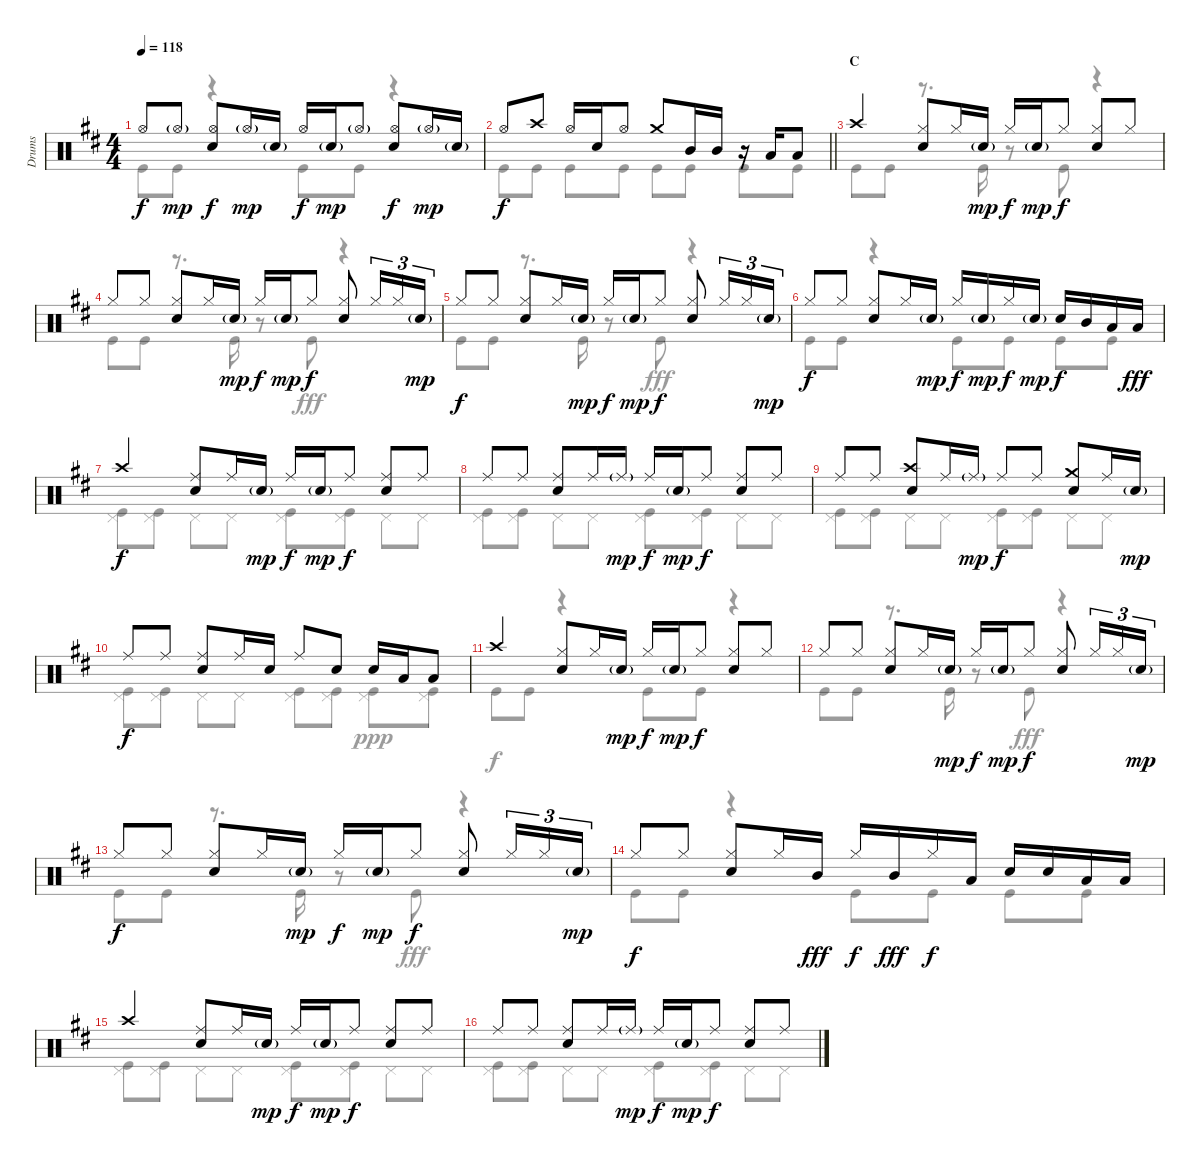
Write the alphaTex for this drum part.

\track ("Drums" "Drums") {instrument percussion}
\staff {score}
\articulation defaults
\voice
\ts (4 4)
\tempo 118
\clef neutral
\ks d "Hi-Hat (open)".8{dy f} "Hi-Hat (open)"{g}.8{dy mp}
("Hi-Hat (open)" "Snare (hit) 2").8{dy f} "Hi-Hat (open)"{g}.16{dy mp} "Snare (hit) 2"{g}.16 "Hi-Hat (open)".16{dy f} "Snare (hit) 2"{g}.16{dy mp} "Hi-Hat (open)"{g}.8 ("Hi-Hat (open)" "Snare (hit) 2").8{dy f} "Hi-Hat (open)"{g}.16{dy mp} "Snare (hit) 2"{g}.16 |
\barLineRight lightlight "Hi-Hat (open)".8{dy f} "Crash high (hit)".8 "Hi-Hat (open)".16 "Snare (hit) 2".16 "Hi-Hat (open)".8 "Crash medium (hit)".8 "Mid Tom (hit)".16 "Mid Tom (hit)".16
r.16 "Low Tom (hit)".16 "Low Tom (hit)".8 |
\section ("" "C")
"Crash high (hit)".4 ("Hi-Hat (closed)" "Snare (hit) 2").8 "Hi-Hat (closed)".16 "Snare (hit) 2"{g}.16{dy mp} "Hi-Hat (closed)".16{dy f} "Snare (hit) 2"{g}.16{dy mp} "Hi-Hat (closed)".8{dy f} ("Hi-Hat (closed)" "Snare (hit) 2").8 "Hi-Hat (closed)".8 |
"Hi-Hat (closed)".8 "Hi-Hat (closed)".8 ("Hi-Hat (closed)" "Snare (hit) 2").8 "Hi-Hat (closed)".16 "Snare (hit) 2"{g}.16{dy mp} "Hi-Hat (closed)".16{dy f} "Snare (hit) 2"{g}.16{dy mp} "Hi-Hat (closed)".8{dy f} ("Hi-Hat (closed)" "Snare (hit) 2").8 "Hi-Hat (closed)".16{tu (3 2)} "Hi-Hat (closed)".16{tu (3 2)} "Snare (hit) 2"{g}.16{tu (3 2) dy mp} |
"Hi-Hat (closed)".8{dy f} "Hi-Hat (closed)".8 ("Hi-Hat (closed)" "Snare (hit) 2").8 "Hi-Hat (closed)".16 "Snare (hit) 2"{g}.16{dy mp} "Hi-Hat (closed)".16{dy f} "Snare (hit) 2"{g}.16{dy mp} "Hi-Hat (closed)".8{dy f} ("Hi-Hat (closed)" "Snare (hit) 2").8 "Hi-Hat (closed)".16{tu (3 2)} "Hi-Hat (closed)".16{tu (3 2)} "Snare (hit) 2"{g}.16{tu (3 2) dy mp} |
"Hi-Hat (closed)".8{dy f} "Hi-Hat (closed)".8 ("Hi-Hat (closed)" "Snare (hit) 2").8 "Hi-Hat (closed)".16 "Snare (hit) 2"{g}.16{dy mp} "Hi-Hat (closed)".16{dy f} "Snare (hit) 2"{g}.16{dy mp} "Hi-Hat (closed)".16{dy f} "Snare (hit) 2"{g}.16{dy mp} "Snare (hit) 2".16{dy f} "Mid Tom (hit)".16 "Low Tom (hit)".16 "Low Tom (hit)".16{dy fff} |
"Crash high (hit)".4{dy f} ("Ride (middle)" "Snare (hit) 2").8 "Ride (middle)".16 "Snare (hit) 2"{g}.16{dy mp} "Ride (middle)".16{dy f} "Snare (hit) 2"{g}.16{dy mp} "Ride (middle)".8{dy f} ("Ride (middle)" "Snare (hit) 2").8 "Ride (middle)".8 |
"Ride (middle)".8 "Ride (middle)".8 ("Ride (middle)" "Snare (hit) 2").8 "Ride (middle)".16 "Ride (middle)"{g}.16{dy mp} "Ride (middle)".16{dy f} "Snare (hit) 2"{g}.16{dy mp} "Ride (middle)".8{dy f} ("Ride (middle)" "Snare (hit) 2").8 "Ride (middle)".8 |
"Ride (middle)".8 "Ride (middle)".8 ("Crash high (hit)" "Snare (hit) 2").8 "Ride (middle)".16 "Ride (middle)"{g}.16{dy mp} "Ride (middle)".8{dy f} "Ride (middle)".8 ("Crash medium (hit)" "Snare (hit) 2").8 "Ride (middle)".16 "Snare (hit) 2"{g}.16{dy mp} |
"Ride (middle)".8{dy f} "Ride (middle)".8 ("Ride (middle)" "Snare (hit) 2").8 "Ride (middle)".16 "Snare (hit) 2".16 "Ride (middle)".8 "Snare (hit) 2".8 "Snare (hit) 2".16 "Low Tom (hit)".16 "Low Tom (hit)".8 |
"Crash high (hit)".4 ("Hi-Hat (closed)" "Snare (hit) 2").8 "Hi-Hat (closed)".16 "Snare (hit) 2"{g}.16{dy mp} "Hi-Hat (closed)".16{dy f} "Snare (hit) 2"{g}.16{dy mp} "Hi-Hat (closed)".8{dy f} ("Hi-Hat (closed)" "Snare (hit) 2").8 "Hi-Hat (closed)".8 |
"Hi-Hat (closed)".8 "Hi-Hat (closed)".8 ("Hi-Hat (closed)" "Snare (hit) 2").8 "Hi-Hat (closed)".16 "Snare (hit) 2"{g}.16{dy mp} "Hi-Hat (closed)".16{dy f} "Snare (hit) 2"{g}.16{dy mp} "Hi-Hat (closed)".8{dy f} ("Hi-Hat (closed)" "Snare (hit) 2").8 "Hi-Hat (closed)".16{tu (3 2)} "Hi-Hat (closed)".16{tu (3 2)} "Snare (hit) 2"{g}.16{tu (3 2) dy mp} |
"Hi-Hat (closed)".8{dy f} "Hi-Hat (closed)".8 ("Hi-Hat (closed)" "Snare (hit) 2").8 "Hi-Hat (closed)".16 "Snare (hit) 2"{g}.16{dy mp} "Hi-Hat (closed)".16{dy f} "Snare (hit) 2"{g}.16{dy mp} "Hi-Hat (closed)".8{dy f} ("Hi-Hat (closed)" "Snare (hit) 2").8 "Hi-Hat (closed)".16{tu (3 2)} "Hi-Hat (closed)".16{tu (3 2)} "Snare (hit) 2"{g}.16{tu (3 2) dy mp} |
"Hi-Hat (closed)".8{dy f} "Hi-Hat (closed)".8 ("Hi-Hat (closed)" "Snare (hit) 2").8 "Hi-Hat (closed)".16 "Mid Tom (hit)".16{dy fff} "Hi-Hat (closed)".16{dy f} "Mid Tom (hit)".16{dy fff} "Hi-Hat (closed)".16{dy f} "Low Tom (hit)".16 "Snare (hit) 2".16 "Snare (hit) 2".16 "Low Tom (hit)".16 "Low Tom (hit)".16 |
"Crash high (hit)".4 ("Ride (middle)" "Snare (hit) 2").8 "Ride (middle)".16 "Snare (hit) 2"{g}.16{dy mp} "Ride (middle)".16{dy f} "Snare (hit) 2"{g}.16{dy mp} "Ride (middle)".8{dy f} ("Ride (middle)" "Snare (hit) 2").8 "Ride (middle)".8 |
"Ride (middle)".8 "Ride (middle)".8 ("Ride (middle)" "Snare (hit) 2").8 "Ride (middle)".16 "Ride (middle)"{g}.16{dy mp} "Ride (middle)".16{dy f} "Snare (hit) 2"{g}.16{dy mp} "Ride (middle)".8{dy f} ("Ride (middle)" "Snare (hit) 2").8 "Ride (middle)".8
\voice
\clef neutral
\ottava regular
\simile none
\ks d "Kick (hit)".8{dy f} "Kick (hit)".8
r.4 "Kick (hit)".8 "Kick (hit)".8 r.4 |
\barLineRight lightlight "Kick (hit)".8 "Kick (hit)".8 "Kick (hit)".8 "Kick (hit)".8 "Kick (hit)".8 "Kick (hit)".8 "Kick (hit)".8 "Kick (hit)".8
|
"Kick (hit)".8 "Kick (hit)".8 r.8{d} "Kick (hit)".16 r.8 "Kick (hit)".8 r.4 |
"Kick (hit)".8 "Kick (hit)".8 r.8{d} "Kick (hit)".16 r.8 "Kick (hit)".8{dy fff} r.4 |
"Kick (hit)".8{dy f} "Kick (hit)".8 r.8{d} "Kick (hit)".16 r.8 "Kick (hit)".8{dy fff} r.4 |
"Kick (hit)".8{dy f} "Kick (hit)".8 r.4 "Kick (hit)".8 "Kick (hit)".8 "Kick (hit)".8 "Kick (hit)".8 |
("Pedal Hi-Hat (hit)" "Kick (hit)").8 ("Pedal Hi-Hat (hit)" "Kick (hit)").8 "Pedal Hi-Hat (hit)".8 "Pedal Hi-Hat (hit)".8 ("Pedal Hi-Hat (hit)" "Kick (hit)").8 ("Pedal Hi-Hat (hit)" "Kick (hit)").8 "Pedal Hi-Hat (hit)".8 "Pedal Hi-Hat (hit)".8 |
("Pedal Hi-Hat (hit)" "Kick (hit)").8 ("Pedal Hi-Hat (hit)" "Kick (hit)").8 "Pedal Hi-Hat (hit)".8 "Pedal Hi-Hat (hit)".8 ("Pedal Hi-Hat (hit)" "Kick (hit)").8 ("Pedal Hi-Hat (hit)" "Kick (hit)").8 "Pedal Hi-Hat (hit)".8 "Pedal Hi-Hat (hit)".8 |
("Pedal Hi-Hat (hit)" "Kick (hit)").8 ("Pedal Hi-Hat (hit)" "Kick (hit)").8 "Pedal Hi-Hat (hit)".8 "Pedal Hi-Hat (hit)".8 ("Pedal Hi-Hat (hit)" "Kick (hit)").8 ("Pedal Hi-Hat (hit)" "Kick (hit)").8 "Pedal Hi-Hat (hit)".8 "Pedal Hi-Hat (hit)".8 |
("Pedal Hi-Hat (hit)" "Kick (hit)").8 ("Pedal Hi-Hat (hit)" "Kick (hit)").8 "Pedal Hi-Hat (hit)".8 "Pedal Hi-Hat (hit)".8 ("Pedal Hi-Hat (hit)" "Kick (hit)").8 ("Pedal Hi-Hat (hit)" "Kick (hit)").8 ("Pedal Hi-Hat (hit)" "Kick (hit)").8{dy ppp} ("Pedal Hi-Hat (hit)" "Kick (hit)").8 |
"Kick (hit)".8{dy f} "Kick (hit)".8 r.4 "Kick (hit)".8 "Kick (hit)".8 r.4 |
"Kick (hit)".8 "Kick (hit)".8 r.8{d} "Kick (hit)".16 r.8 "Kick (hit)".8{dy fff} r.4 |
"Kick (hit)".8{dy f} "Kick (hit)".8 r.8{d} "Kick (hit)".16 r.8 "Kick (hit)".8{dy fff} r.4 |
"Kick (hit)".8{dy f} "Kick (hit)".8 r.4 "Kick (hit)".8 "Kick (hit)".8 "Kick (hit)".8 "Kick (hit)".8 |
("Pedal Hi-Hat (hit)" "Kick (hit)").8 ("Pedal Hi-Hat (hit)" "Kick (hit)").8 "Pedal Hi-Hat (hit)".8 "Pedal Hi-Hat (hit)".8 ("Pedal Hi-Hat (hit)" "Kick (hit)").8 ("Pedal Hi-Hat (hit)" "Kick (hit)").8 "Pedal Hi-Hat (hit)".8 "Pedal Hi-Hat (hit)".8 |
("Pedal Hi-Hat (hit)" "Kick (hit)").8 ("Pedal Hi-Hat (hit)" "Kick (hit)").8 "Pedal Hi-Hat (hit)".8 "Pedal Hi-Hat (hit)".8 ("Pedal Hi-Hat (hit)" "Kick (hit)").8 ("Pedal Hi-Hat (hit)" "Kick (hit)").8 "Pedal Hi-Hat (hit)".8 "Pedal Hi-Hat (hit)".8
